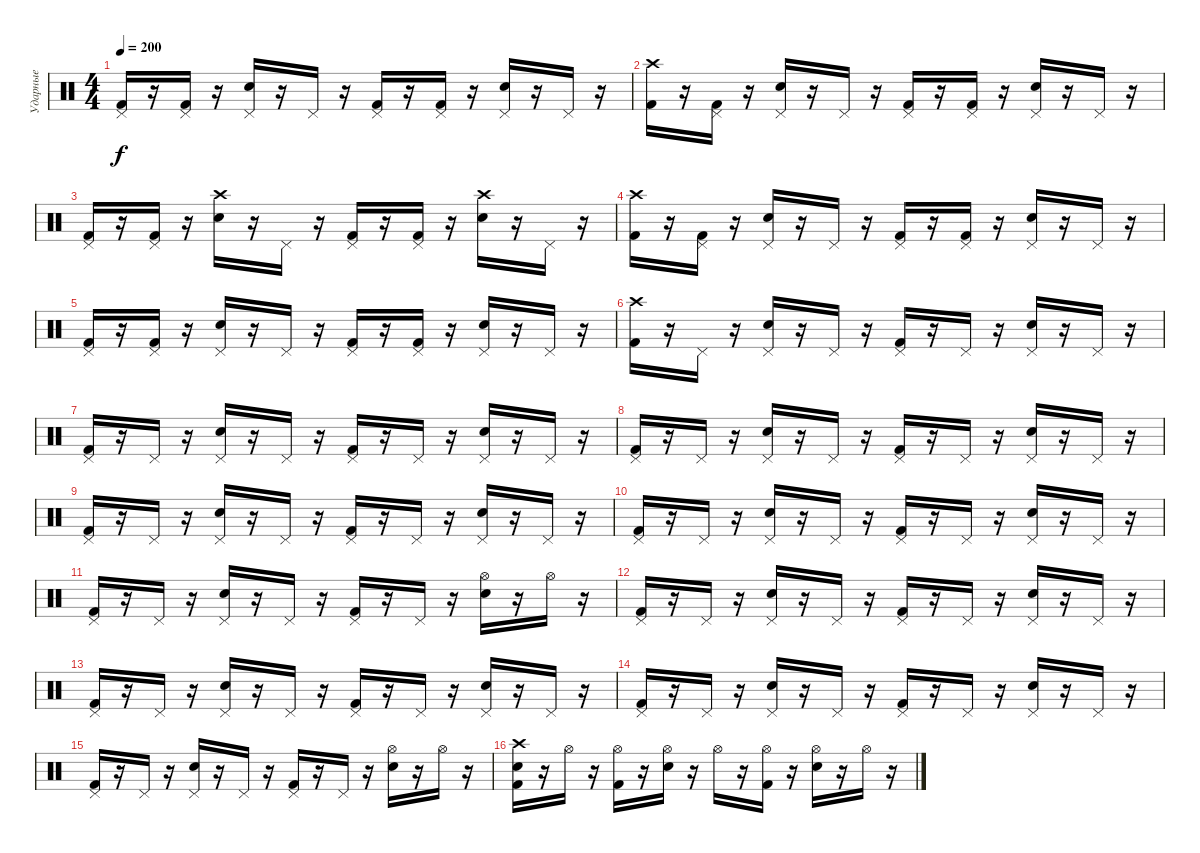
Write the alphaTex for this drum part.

\track ("Ударные" "Ударные") {solo instrument percussion}
\staff {score}
\articulation defaults
\ts (4 4)
\tempo 200
\clef neutral
\ks c
("Pedal Hi-Hat (hit)" "Kick (hit) 2").16{dy f} r.16 ("Pedal Hi-Hat (hit)" "Kick (hit) 2").16 r.16 ("Pedal Hi-Hat (hit)" "Electric Snare (hit)").16 r.16 "Pedal Hi-Hat (hit)".16 r.16 ("Pedal Hi-Hat (hit)" "Kick (hit) 2").16 r.16 ("Pedal Hi-Hat (hit)" "Kick (hit) 2").16 r.16 ("Pedal Hi-Hat (hit)" "Electric Snare (hit)").16 r.16 "Pedal Hi-Hat (hit)".16 r.16 |
("Crash high (hit)" "Kick (hit) 2").16 r.16 ("Pedal Hi-Hat (hit)" "Kick (hit) 2").16 r.16 ("Pedal Hi-Hat (hit)" "Electric Snare (hit)").16 r.16 "Pedal Hi-Hat (hit)".16 r.16 ("Pedal Hi-Hat (hit)" "Kick (hit) 2").16 r.16 ("Pedal Hi-Hat (hit)" "Kick (hit) 2").16 r.16 ("Pedal Hi-Hat (hit)" "Electric Snare (hit)").16 r.16 "Pedal Hi-Hat (hit)".16 r.16 |
("Pedal Hi-Hat (hit)" "Kick (hit) 2").16 r.16 ("Pedal Hi-Hat (hit)" "Kick (hit) 2").16 r.16 ("Crash high (hit)" "Electric Snare (hit)").16 r.16 "Pedal Hi-Hat (hit)".16 r.16 ("Pedal Hi-Hat (hit)" "Kick (hit) 2").16 r.16 ("Pedal Hi-Hat (hit)" "Kick (hit) 2").16 r.16 ("Crash high (hit)" "Electric Snare (hit)").16 r.16 "Pedal Hi-Hat (hit)".16 r.16 |
("Crash high (hit)" "Kick (hit) 2").16 r.16 ("Pedal Hi-Hat (hit)" "Kick (hit) 2").16 r.16 ("Pedal Hi-Hat (hit)" "Electric Snare (hit)").16 r.16 "Pedal Hi-Hat (hit)".16 r.16 ("Pedal Hi-Hat (hit)" "Kick (hit) 2").16 r.16 ("Pedal Hi-Hat (hit)" "Kick (hit) 2").16 r.16 ("Pedal Hi-Hat (hit)" "Electric Snare (hit)").16 r.16 "Pedal Hi-Hat (hit)".16 r.16 |
("Pedal Hi-Hat (hit)" "Kick (hit) 2").16 r.16 ("Pedal Hi-Hat (hit)" "Kick (hit) 2").16 r.16 ("Pedal Hi-Hat (hit)" "Electric Snare (hit)").16 r.16 "Pedal Hi-Hat (hit)".16 r.16 ("Pedal Hi-Hat (hit)" "Kick (hit) 2").16 r.16 ("Pedal Hi-Hat (hit)" "Kick (hit) 2").16 r.16 ("Pedal Hi-Hat (hit)" "Electric Snare (hit)").16 r.16 "Pedal Hi-Hat (hit)".16 r.16 |
("Crash high (hit)" "Kick (hit) 2").16 r.16 "Pedal Hi-Hat (hit)".16 r.16 ("Pedal Hi-Hat (hit)" "Electric Snare (hit)").16 r.16 "Pedal Hi-Hat (hit)".16 r.16 ("Pedal Hi-Hat (hit)" "Kick (hit) 2").16 r.16 "Pedal Hi-Hat (hit)".16 r.16 ("Pedal Hi-Hat (hit)" "Electric Snare (hit)").16 r.16 "Pedal Hi-Hat (hit)".16 r.16 |
("Pedal Hi-Hat (hit)" "Kick (hit) 2").16 r.16 "Pedal Hi-Hat (hit)".16 r.16 ("Pedal Hi-Hat (hit)" "Electric Snare (hit)").16 r.16 "Pedal Hi-Hat (hit)".16 r.16 ("Pedal Hi-Hat (hit)" "Kick (hit) 2").16 r.16 "Pedal Hi-Hat (hit)".16 r.16 ("Pedal Hi-Hat (hit)" "Electric Snare (hit)").16 r.16 "Pedal Hi-Hat (hit)".16 r.16 |
("Pedal Hi-Hat (hit)" "Kick (hit) 2").16 r.16 "Pedal Hi-Hat (hit)".16 r.16 ("Pedal Hi-Hat (hit)" "Electric Snare (hit)").16 r.16 "Pedal Hi-Hat (hit)".16 r.16 ("Pedal Hi-Hat (hit)" "Kick (hit) 2").16 r.16 "Pedal Hi-Hat (hit)".16 r.16 ("Pedal Hi-Hat (hit)" "Electric Snare (hit)").16 r.16 "Pedal Hi-Hat (hit)".16 r.16 |
("Pedal Hi-Hat (hit)" "Kick (hit) 2").16 r.16 "Pedal Hi-Hat (hit)".16 r.16 ("Pedal Hi-Hat (hit)" "Electric Snare (hit)").16 r.16 "Pedal Hi-Hat (hit)".16 r.16 ("Pedal Hi-Hat (hit)" "Kick (hit) 2").16 r.16 "Pedal Hi-Hat (hit)".16 r.16 ("Pedal Hi-Hat (hit)" "Electric Snare (hit)").16 r.16 "Pedal Hi-Hat (hit)".16 r.16 |
("Pedal Hi-Hat (hit)" "Kick (hit) 2").16 r.16 "Pedal Hi-Hat (hit)".16 r.16 ("Pedal Hi-Hat (hit)" "Electric Snare (hit)").16 r.16 "Pedal Hi-Hat (hit)".16 r.16 ("Pedal Hi-Hat (hit)" "Kick (hit) 2").16 r.16 "Pedal Hi-Hat (hit)".16 r.16 ("Pedal Hi-Hat (hit)" "Electric Snare (hit)").16 r.16 "Pedal Hi-Hat (hit)".16 r.16 |
("Pedal Hi-Hat (hit)" "Kick (hit) 2").16 r.16 "Pedal Hi-Hat (hit)".16 r.16 ("Pedal Hi-Hat (hit)" "Electric Snare (hit)").16 r.16 "Pedal Hi-Hat (hit)".16 r.16 ("Pedal Hi-Hat (hit)" "Kick (hit) 2").16 r.16 "Pedal Hi-Hat (hit)".16 r.16 ("Hi-Hat (open)" "Electric Snare (hit)").16 r.16 "Hi-Hat (open)".16 r.16 |
("Pedal Hi-Hat (hit)" "Kick (hit) 2").16 r.16 "Pedal Hi-Hat (hit)".16 r.16 ("Pedal Hi-Hat (hit)" "Electric Snare (hit)").16 r.16 "Pedal Hi-Hat (hit)".16 r.16 ("Pedal Hi-Hat (hit)" "Kick (hit) 2").16 r.16 "Pedal Hi-Hat (hit)".16 r.16 ("Pedal Hi-Hat (hit)" "Electric Snare (hit)").16 r.16 "Pedal Hi-Hat (hit)".16 r.16 |
("Pedal Hi-Hat (hit)" "Kick (hit) 2").16 r.16 "Pedal Hi-Hat (hit)".16 r.16 ("Pedal Hi-Hat (hit)" "Electric Snare (hit)").16 r.16 "Pedal Hi-Hat (hit)".16 r.16 ("Pedal Hi-Hat (hit)" "Kick (hit) 2").16 r.16 "Pedal Hi-Hat (hit)".16 r.16 ("Pedal Hi-Hat (hit)" "Electric Snare (hit)").16 r.16 "Pedal Hi-Hat (hit)".16 r.16 |
("Pedal Hi-Hat (hit)" "Kick (hit) 2").16 r.16 "Pedal Hi-Hat (hit)".16 r.16 ("Pedal Hi-Hat (hit)" "Electric Snare (hit)").16 r.16 "Pedal Hi-Hat (hit)".16 r.16 ("Pedal Hi-Hat (hit)" "Kick (hit) 2").16 r.16 "Pedal Hi-Hat (hit)".16 r.16 ("Pedal Hi-Hat (hit)" "Electric Snare (hit)").16 r.16 "Pedal Hi-Hat (hit)".16 r.16 |
("Pedal Hi-Hat (hit)" "Kick (hit) 2").16 r.16 "Pedal Hi-Hat (hit)".16 r.16 ("Pedal Hi-Hat (hit)" "Electric Snare (hit)").16 r.16 "Pedal Hi-Hat (hit)".16 r.16 ("Pedal Hi-Hat (hit)" "Kick (hit) 2").16 r.16 "Pedal Hi-Hat (hit)".16 r.16 ("Hi-Hat (open)" "Electric Snare (hit)").16 r.16 "Hi-Hat (open)".16 r.16 |
("Crash high (hit)" "Electric Snare (hit)" "Kick (hit) 2").16 r.16 "Hi-Hat (open)".16 r.16 ("Hi-Hat (open)" "Kick (hit) 2").16 r.16 ("Hi-Hat (open)" "Electric Snare (hit)").16 r.16 "Hi-Hat (open)".16 r.16 ("Hi-Hat (open)" "Kick (hit) 2").16 r.16 ("Hi-Hat (open)" "Electric Snare (hit)").16 r.16 "Hi-Hat (open)".16 r.16
